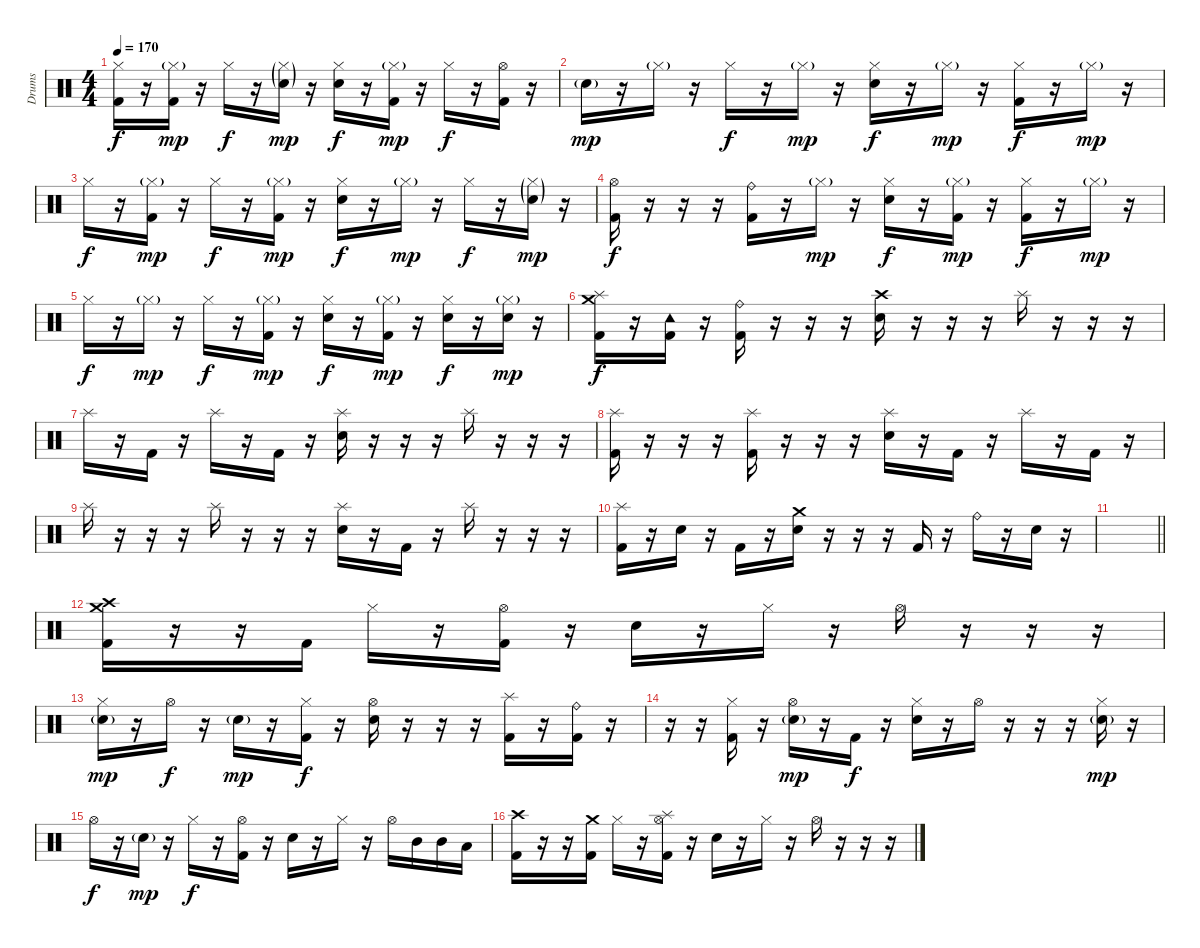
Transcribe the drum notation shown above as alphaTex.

\track ("Drums" "Drums") {instrument percussion}
\staff {score}
\articulation defaults
\ts (4 4)
\tempo 170
\clef neutral
\ks c
("Hi-Hat (closed)" "Kick (hit) 2").16{dy f} r.16 ("Hi-Hat (closed)"{g} "Kick (hit) 2").16{dy mp} r.16 "Hi-Hat (closed)".16{dy f} r.16 ("Hi-Hat (closed)"{g} "Electric Snare (hit)"{g}).16{dy mp} r.16 ("Hi-Hat (closed)" "Electric Snare (hit)").16{dy f} r.16 ("Hi-Hat (closed)"{g} "Kick (hit) 2").16{dy mp} r.16 "Hi-Hat (closed)".16{dy f} r.16 ("Hi-Hat (open)" "Kick (hit) 2").16 r.16 |
"Electric Snare (hit)"{g}.16{dy mp} r.16 "Hi-Hat (closed)"{g}.16 r.16 "Hi-Hat (closed)".16{dy f} r.16 "Hi-Hat (closed)"{g}.16{dy mp} r.16 ("Hi-Hat (closed)" "Electric Snare (hit)").16{dy f} r.16 "Hi-Hat (closed)"{g}.16{dy mp} r.16 ("Hi-Hat (closed)" "Kick (hit) 2").16{dy f} r.16 "Hi-Hat (closed)"{g}.16{dy mp} r.16 |
"Hi-Hat (closed)".16{dy f} r.16 ("Hi-Hat (closed)"{g} "Kick (hit) 2").16{dy mp} r.16 "Hi-Hat (closed)".16{dy f} r.16 ("Hi-Hat (closed)"{g} "Kick (hit) 2").16{dy mp} r.16 ("Hi-Hat (closed)" "Electric Snare (hit)").16{dy f} r.16 "Hi-Hat (closed)"{g}.16{dy mp} r.16 "Hi-Hat (closed)".16{dy f} r.16 ("Hi-Hat (closed)"{g} "Electric Snare (hit)"{g}).16{dy mp} r.16 |
("Hi-Hat (open)" "Kick (hit) 2").16{dy f} r.16 r.16 r.16 ("Ride (bell)" "Kick (hit) 2").16 r.16 "Hi-Hat (closed)"{g}.16{dy mp} r.16 ("Hi-Hat (closed)" "Electric Snare (hit)").16{dy f} r.16 ("Hi-Hat (closed)"{g} "Kick (hit) 2").16{dy mp} r.16 ("Hi-Hat (closed)" "Kick (hit) 2").16{dy f} r.16 "Hi-Hat (closed)"{g}.16{dy mp} r.16 |
"Hi-Hat (closed)".16{dy f} r.16 "Hi-Hat (closed)"{g}.16{dy mp} r.16 "Hi-Hat (closed)".16{dy f} r.16 ("Hi-Hat (closed)"{g} "Kick (hit) 2").16{dy mp} r.16 ("Hi-Hat (closed)" "Electric Snare (hit)").16{dy f} r.16 ("Hi-Hat (closed)"{g} "Kick (hit) 2").16{dy mp} r.16 ("Hi-Hat (closed)" "Electric Snare (hit)").16{dy f} r.16 ("Hi-Hat (closed)"{g} "Electric Snare (hit)").16{dy mp} r.16 |
("Crash medium (hit)" "Splash (hit)" "Kick (hit) 2").16{dy f} r.16 ("Tambourine (hit)" "Kick (hit) 2").16 r.16 ("Ride (bell)" "Kick (hit) 2").16 r.16 r.16 r.16 ("Crash high (hit)" "Electric Snare (hit)").16 r.16 r.16 r.16 "Splash (hit)".16 r.16 r.16 r.16 |
"Splash (hit)".16 r.16 "Kick (hit) 2".16 r.16 "Splash (hit)".16 r.16 "Kick (hit) 2".16 r.16 ("Splash (hit)" "Electric Snare (hit)").16 r.16 r.16 r.16 "Splash (hit)".16 r.16 r.16 r.16 |
("Splash (hit)" "Kick (hit) 2").16 r.16 r.16 r.16 ("Splash (hit)" "Kick (hit) 2").16 r.16 r.16 r.16 ("Splash (hit)" "Electric Snare (hit)").16 r.16 "Kick (hit) 2".16 r.16 "Splash (hit)".16 r.16 "Kick (hit) 2".16 r.16 |
"Splash (hit)".16 r.16 r.16 r.16 "Splash (hit)".16 r.16 r.16 r.16 ("Splash (hit)" "Electric Snare (hit)").16 r.16 "Kick (hit) 2".16 r.16 "Splash (hit)".16 r.16 r.16 r.16 |
("Splash (hit)" "Kick (hit) 2").16 r.16 "Electric Snare (hit)".16 r.16 "Kick (hit) 2".16 r.16 ("Crash medium (hit)" "Electric Snare (hit)").16 r.16 r.16 r.16 "Kick (hit) 2".16 r.16 "Ride (bell)".16 r.16 "Electric Snare (hit)".16 r.16 |
\barLineRight lightlight
|
\section ("" "")
("Crash medium (hit)" "Crash high (hit)" "Kick (hit) 2").16 r.16 r.16 "Kick (hit) 2".16 "Hi-Hat (closed)".16 r.16 ("Hi-Hat (open)" "Kick (hit) 2").16 r.16 "Electric Snare (hit)".16 r.16 "Hi-Hat (closed)".16 r.16 "Hi-Hat (open)".16 r.16 r.16 r.16 |
("Hi-Hat (closed)" "Electric Snare (hit)"{g}).16{dy mp} r.16 "Hi-Hat (open)".16{dy f} r.16 "Electric Snare (hit)"{g}.16{dy mp} r.16 ("Hi-Hat (closed)" "Kick (hit) 2").16{dy f} r.16 ("Hi-Hat (open)" "Electric Snare (hit)").16 r.16 r.16 r.16 ("Splash (hit)" "Kick (hit) 2").16 r.16 ("Ride (bell)" "Kick (hit) 2").16 r.16 |
r.16 r.16 ("Hi-Hat (closed)" "Kick (hit) 2").16 r.16 ("Hi-Hat (open)" "Electric Snare (hit)"{g}).16{dy mp} r.16 "Kick (hit) 2".16{dy f} r.16 ("Hi-Hat (closed)" "Electric Snare (hit)").16 r.16 "Hi-Hat (open)".16 r.16 r.16 r.16 ("Hi-Hat (closed)" "Electric Snare (hit)"{g}).16{dy mp} r.16 |
"Hi-Hat (open)".16{dy f} r.16 "Electric Snare (hit)"{g}.16{dy mp} r.16 "Hi-Hat (closed)".16{dy f} r.16 ("Hi-Hat (open)" "Kick (hit) 2").16 r.16 "Electric Snare (hit)".16 r.16 "Hi-Hat (closed)".16 r.16 "Hi-Hat (open)".16 "Mid Tom (hit)".16 "Mid Tom (hit)".16 "Low Tom (hit)".16 |
("Crash high (hit)" "Kick (hit) 2").16 r.16 r.16 ("Crash medium (hit)" "Kick (hit) 2").16 "Hi-Hat (closed)".16 r.16 ("Splash (hit)" "Hi-Hat (open)" "Kick (hit) 2").16 r.16 "Electric Snare (hit)".16 r.16 "Hi-Hat (closed)".16 r.16 "Hi-Hat (open)".16 r.16 r.16 r.16
